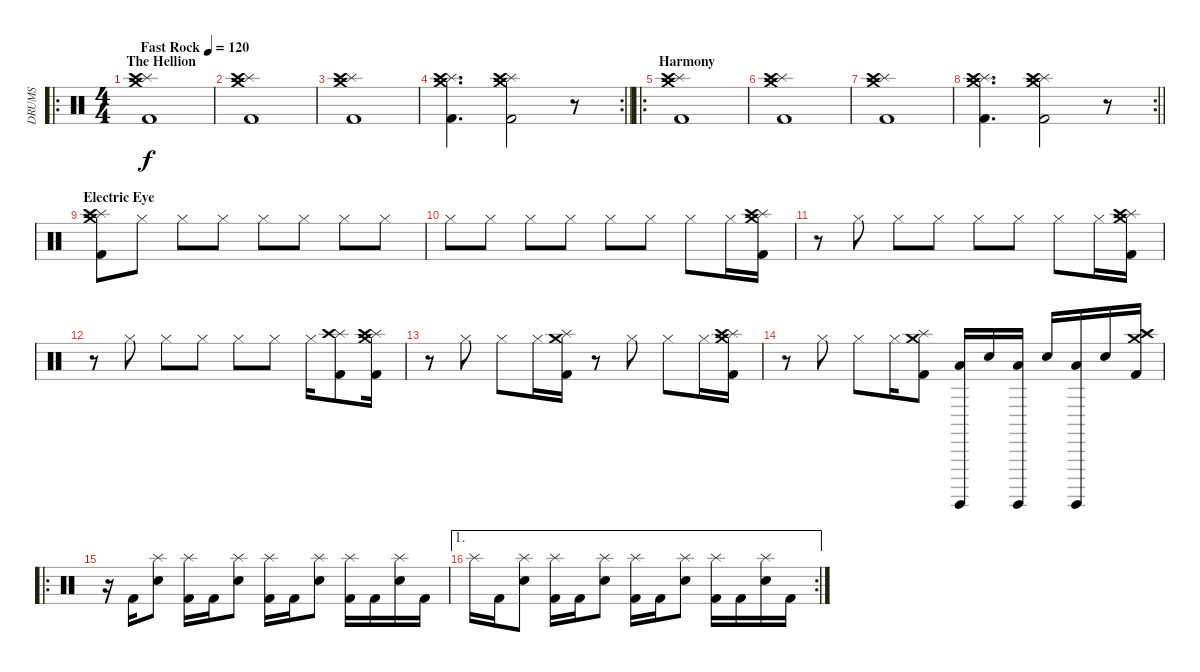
\track ("DRUMS" "DRUMS") {instrument percussion}
\staff {score}
\articulation defaults
\ro
\ts (4 4)
\section ("" "The Hellion")
\tempo (120 "Fast Rock")
\tempo 100
\tempo (120 "Fast Rock")
\clef neutral
\ks c
("Crash medium (hit)" "Splash (hit)" "Crash high (hit)" "Kick (hit) 2").1{dy f} |
("Crash medium (hit)" "Splash (hit)" "Crash high (hit)" "Kick (hit) 2").1 |
("Crash medium (hit)" "Splash (hit)" "Crash high (hit)" "Kick (hit) 2").1 |
\rc 2
\barLineRight lightlight
("Crash medium (hit)" "Splash (hit)" "Crash high (hit)" "Kick (hit) 2").4{d} ("Crash medium (hit)" "Splash (hit)" "Crash high (hit)" "Kick (hit) 2").2 r.8 |
\ro
\section ("" "Harmony")
("Crash medium (hit)" "Splash (hit)" "Crash high (hit)" "Kick (hit) 2").1 |
("Crash medium (hit)" "Splash (hit)" "Crash high (hit)" "Kick (hit) 2").1 |
("Crash medium (hit)" "Splash (hit)" "Crash high (hit)" "Kick (hit) 2").1 |
\rc 2
\barLineRight lightlight
("Crash medium (hit)" "Splash (hit)" "Crash high (hit)" "Kick (hit) 2").4{d} ("Crash medium (hit)" "Splash (hit)" "Crash high (hit)" "Kick (hit) 2").2 r.8 |
\section ("" "Electric Eye ")
("Crash medium (hit)" "Splash (hit)" "Crash high (hit)" "Kick (hit) 2").8 "Hi-Hat (closed)".8 "Hi-Hat (closed)".8 "Hi-Hat (closed)".8 "Hi-Hat (closed)".8 "Hi-Hat (closed)".8 "Hi-Hat (closed)".8 "Hi-Hat (closed)".8 |
"Hi-Hat (closed)".8 "Hi-Hat (closed)".8 "Hi-Hat (closed)".8 "Hi-Hat (closed)".8 "Hi-Hat (closed)".8 "Hi-Hat (closed)".8 "Hi-Hat (closed)".8 "Hi-Hat (closed)".16 ("Crash medium (hit)" "Splash (hit)" "Crash high (hit)" "Kick (hit) 2").16 |
r.8 "Hi-Hat (closed)".8 "Hi-Hat (closed)".8 "Hi-Hat (closed)".8 "Hi-Hat (closed)".8 "Hi-Hat (closed)".8 "Hi-Hat (closed)".8 "Hi-Hat (closed)".16 ("Crash medium (hit)" "Splash (hit)" "Crash high (hit)" "Kick (hit) 2").16 |
r.8 "Hi-Hat (closed)".8 "Hi-Hat (closed)".8 "Hi-Hat (closed)".8 "Hi-Hat (closed)".8 "Hi-Hat (closed)".8 "Hi-Hat (closed)".16 ("Splash (hit)" "Crash high (hit)" "Kick (hit) 2").8 ("Crash medium (hit)" "Splash (hit)" "Crash high (hit)" "Kick (hit) 2").16 |
r.8 "Hi-Hat (closed)".8 "Hi-Hat (closed)".8 "Hi-Hat (closed)".16 ("Crash medium (hit)" "Splash (hit)" "Kick (hit) 2").16 r.8 "Hi-Hat (closed)".8 "Hi-Hat (closed)".8 "Hi-Hat (closed)".16 ("Crash medium (hit)" "Splash (hit)" "Crash high (hit)" "Kick (hit) 2").16 |
r.8 "Hi-Hat (closed)".8 "Hi-Hat (closed)".8 "Hi-Hat (closed)".16 ("Crash medium (hit)" "Splash (hit)" "Kick (hit) 2").8 ("Surdo (hit)" "Low Floor Tom (hit)").16 "Electric Snare (hit)".16 ("Surdo (hit)" "Low Floor Tom (hit)").16 "Electric Snare (hit)".16 ("Surdo (hit)" "Low Floor Tom (hit)").16 "Electric Snare (hit)".16 ("Crash medium (hit)" "Splash (hit)" "Crash high (hit)" "Kick (hit) 2").16 |
\ro
r.16 "Kick (hit) 2".16 ("Splash (hit)" "Electric Snare (hit)").8 ("Splash (hit)" "Kick (hit) 2").16 "Kick (hit) 2".16 ("Splash (hit)" "Electric Snare (hit)").8 ("Splash (hit)" "Kick (hit) 2").16 "Kick (hit) 2".16 ("Splash (hit)" "Electric Snare (hit)").8 ("Splash (hit)" "Kick (hit) 2").16 "Kick (hit) 2".16 ("Splash (hit)" "Electric Snare (hit)").16 "Kick (hit) 2".16 |
\ae 1
\rc 2 "Splash (hit)".16 "Kick (hit) 2".16
("Splash (hit)" "Electric Snare (hit)").8 ("Splash (hit)" "Kick (hit) 2").16 "Kick (hit) 2".16 ("Splash (hit)" "Electric Snare (hit)").8 ("Splash (hit)" "Kick (hit) 2").16 "Kick (hit) 2".16 ("Splash (hit)" "Electric Snare (hit)").8 ("Splash (hit)" "Kick (hit) 2").16 "Kick (hit) 2".16 ("Splash (hit)" "Electric Snare (hit)").16 "Kick (hit) 2".16
